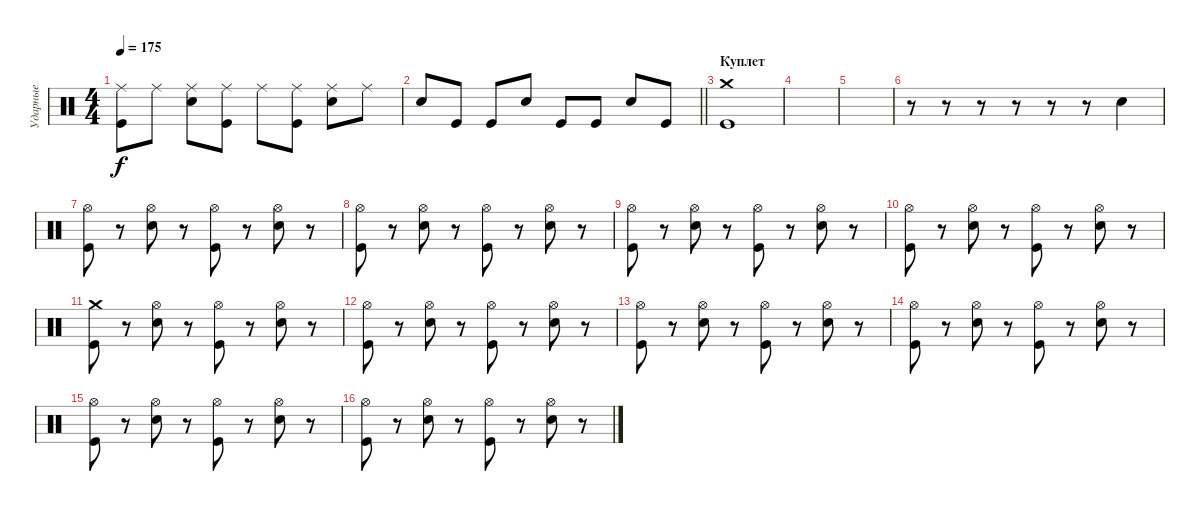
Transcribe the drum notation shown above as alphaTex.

\track ("Ударные" "Ударные") {instrument percussion}
\staff {score}
\articulation defaults
\ts (4 4)
\tempo 175
\clef neutral
\ks c
("Ride (middle)" "Kick (hit)").8{dy f} "Ride (middle)".8 ("Ride (middle)" "Electric Snare (hit)").8 ("Ride (middle)" "Kick (hit)").8 "Ride (middle)".8 ("Ride (middle)" "Kick (hit)").8 ("Ride (middle)" "Electric Snare (hit)").8 "Ride (middle)".8 |
\barLineRight lightlight "Electric Snare (hit)".8 "Kick (hit)".8 "Kick (hit)".8 "Electric Snare (hit)".8 "Kick (hit)".8 "Kick (hit)".8 "Electric Snare (hit)".8 "Kick (hit)".8
|
\section ("" "Куплет")
("Crash medium (hit)" "Kick (hit)").1 |
|
|
r.8 r.8 r.8 r.8 r.8 r.8 "Electric Snare (hit)".4 |
("Hi-Hat (open)" "Kick (hit)").8 r.8 ("Hi-Hat (open)" "Electric Snare (hit)").8 r.8 ("Hi-Hat (open)" "Kick (hit)").8 r.8 ("Hi-Hat (open)" "Electric Snare (hit)").8 r.8 |
("Hi-Hat (open)" "Kick (hit)").8 r.8 ("Hi-Hat (open)" "Electric Snare (hit)").8 r.8 ("Hi-Hat (open)" "Kick (hit)").8 r.8 ("Hi-Hat (open)" "Electric Snare (hit)").8 r.8 |
("Hi-Hat (open)" "Kick (hit)").8 r.8 ("Hi-Hat (open)" "Electric Snare (hit)").8 r.8 ("Hi-Hat (open)" "Kick (hit)").8 r.8 ("Hi-Hat (open)" "Electric Snare (hit)").8 r.8 |
("Hi-Hat (open)" "Kick (hit)").8 r.8 ("Hi-Hat (open)" "Electric Snare (hit)").8 r.8 ("Hi-Hat (open)" "Kick (hit)").8 r.8 ("Hi-Hat (open)" "Electric Snare (hit)").8 r.8 |
("Crash medium (hit)" "Kick (hit)").8 r.8 ("Hi-Hat (open)" "Electric Snare (hit)").8 r.8 ("Hi-Hat (open)" "Kick (hit)").8 r.8 ("Hi-Hat (open)" "Electric Snare (hit)").8 r.8 |
("Hi-Hat (open)" "Kick (hit)").8 r.8 ("Hi-Hat (open)" "Electric Snare (hit)").8 r.8 ("Hi-Hat (open)" "Kick (hit)").8 r.8 ("Hi-Hat (open)" "Electric Snare (hit)").8 r.8 |
("Hi-Hat (open)" "Kick (hit)").8 r.8 ("Hi-Hat (open)" "Electric Snare (hit)").8 r.8 ("Hi-Hat (open)" "Kick (hit)").8 r.8 ("Hi-Hat (open)" "Electric Snare (hit)").8 r.8 |
("Hi-Hat (open)" "Kick (hit)").8 r.8 ("Hi-Hat (open)" "Electric Snare (hit)").8 r.8 ("Hi-Hat (open)" "Kick (hit)").8 r.8 ("Hi-Hat (open)" "Electric Snare (hit)").8 r.8 |
("Hi-Hat (open)" "Kick (hit)").8 r.8 ("Hi-Hat (open)" "Electric Snare (hit)").8 r.8 ("Hi-Hat (open)" "Kick (hit)").8 r.8 ("Hi-Hat (open)" "Electric Snare (hit)").8 r.8 |
("Hi-Hat (open)" "Kick (hit)").8 r.8 ("Hi-Hat (open)" "Electric Snare (hit)").8 r.8 ("Hi-Hat (open)" "Kick (hit)").8 r.8 ("Hi-Hat (open)" "Electric Snare (hit)").8 r.8
